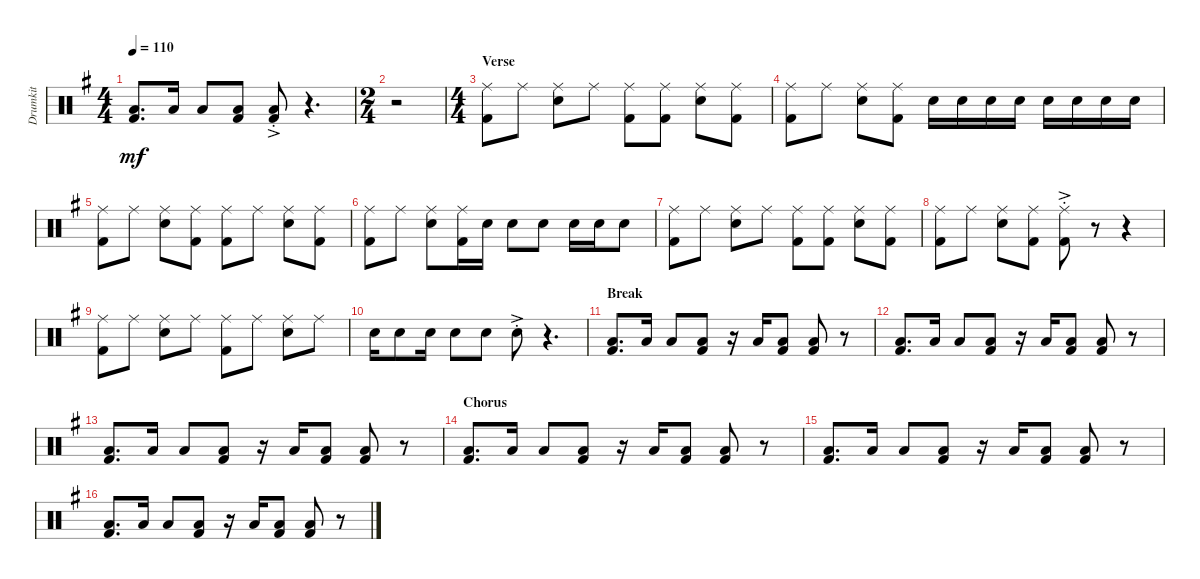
\track ("Drumkit" "Drumkit") {instrument percussion}
\staff {score}
\articulation defaults
\ts (4 4)
\tempo 110
\clef neutral
\ks g
("Kick (hit) 2" "Low Floor Tom (hit)").8{d dy mf} "Low Floor Tom (hit)".16 "Low Floor Tom (hit)".8 ("Low Floor Tom (hit)" "Kick (hit) 2").8 ("Low Floor Tom (hit)"{ac st} "Kick (hit) 2"{ac st}).8 r.4{d} |
\ts (2 4)
r.2 |
\ts (4 4)
\section ("" "Verse")
("Kick (hit) 2" "Ride (middle)").8 "Ride (middle)".8 ("Snare (hit) 2" "Ride (middle)").8 "Ride (middle)".8 ("Kick (hit) 2" "Ride (middle)").8 ("Kick (hit) 2" "Ride (middle)").8 ("Snare (hit) 2" "Ride (middle)").8 ("Ride (middle)" "Kick (hit) 2").8 |
("Kick (hit) 2" "Ride (middle)").8 "Ride (middle)".8 ("Snare (hit) 2" "Ride (middle)").8 ("Ride (middle)" "Kick (hit) 2").8 "Snare (hit) 2".16 "Snare (hit) 2".16 "Snare (hit) 2".16 "Snare (hit) 2".16 "Snare (hit) 2".16 "Snare (hit) 2".16 "Snare (hit) 2".16 "Snare (hit) 2".16 |
("Kick (hit) 2" "Ride (middle)").8 "Ride (middle)".8 ("Snare (hit) 2" "Ride (middle)").8 ("Ride (middle)" "Kick (hit) 2").8 ("Kick (hit) 2" "Ride (middle)").8 "Ride (middle)".8 ("Snare (hit) 2" "Ride (middle)").8 ("Kick (hit) 2" "Ride (middle)").8 |
("Kick (hit) 2" "Ride (middle)").8 "Ride (middle)".8 ("Snare (hit) 2" "Ride (middle)").8 ("Ride (middle)" "Kick (hit) 2").16 "Snare (hit) 2".16 "Snare (hit) 2".8 "Snare (hit) 2".8 "Snare (hit) 2".16 "Snare (hit) 2".16 "Snare (hit) 2".8 |
("Kick (hit) 2" "Ride (middle)").8 "Ride (middle)".8 ("Snare (hit) 2" "Ride (middle)").8 "Ride (middle)".8 ("Kick (hit) 2" "Ride (middle)").8 ("Kick (hit) 2" "Ride (middle)").8 ("Snare (hit) 2" "Ride (middle)").8 ("Ride (middle)" "Kick (hit) 2").8 |
("Kick (hit) 2" "Ride (middle)").8 "Ride (middle)".8 ("Snare (hit) 2" "Ride (middle)").8 ("Ride (middle)" "Kick (hit) 2").8 ("Kick (hit) 2"{ac st} "Ride (middle)").8 r.8 r.4 |
("Kick (hit) 2" "Ride (middle)").8 "Ride (middle)".8 ("Snare (hit) 2" "Ride (middle)").8 "Ride (middle)".8 ("Kick (hit) 2" "Ride (middle)").8 "Ride (middle)".8 ("Snare (hit) 2" "Ride (middle)").8 "Ride (middle)".8 |
"Snare (hit) 2".16 "Snare (hit) 2".8 "Snare (hit) 2".16 "Snare (hit) 2".8 "Snare (hit) 2".8 "Snare (hit) 2"{ac st}.8 r.4{d} |
\section ("" "Break")
("Kick (hit) 2" "Low Floor Tom (hit)").8{d} "Low Floor Tom (hit)".16 "Low Floor Tom (hit)".8 ("Low Floor Tom (hit)" "Kick (hit) 2").8 r.16 "Low Floor Tom (hit)".16 ("Kick (hit) 2" "Low Floor Tom (hit)").8 ("Low Floor Tom (hit)" "Kick (hit) 2").8 r.8 |
("Kick (hit) 2" "Low Floor Tom (hit)").8{d} "Low Floor Tom (hit)".16 "Low Floor Tom (hit)".8 ("Low Floor Tom (hit)" "Kick (hit) 2").8 r.16 "Low Floor Tom (hit)".16 ("Kick (hit) 2" "Low Floor Tom (hit)").8 ("Low Floor Tom (hit)" "Kick (hit) 2").8 r.8 |
("Kick (hit) 2" "Low Floor Tom (hit)").8{d} "Low Floor Tom (hit)".16 "Low Floor Tom (hit)".8 ("Low Floor Tom (hit)" "Kick (hit) 2").8 r.16 "Low Floor Tom (hit)".16 ("Kick (hit) 2" "Low Floor Tom (hit)").8 ("Low Floor Tom (hit)" "Kick (hit) 2").8 r.8 |
\section ("" "Chorus")
("Kick (hit) 2" "Low Floor Tom (hit)").8{d} "Low Floor Tom (hit)".16 "Low Floor Tom (hit)".8 ("Low Floor Tom (hit)" "Kick (hit) 2").8 r.16 "Low Floor Tom (hit)".16 ("Kick (hit) 2" "Low Floor Tom (hit)").8 ("Low Floor Tom (hit)" "Kick (hit) 2").8 r.8 |
("Kick (hit) 2" "Low Floor Tom (hit)").8{d} "Low Floor Tom (hit)".16 "Low Floor Tom (hit)".8 ("Low Floor Tom (hit)" "Kick (hit) 2").8 r.16 "Low Floor Tom (hit)".16 ("Kick (hit) 2" "Low Floor Tom (hit)").8 ("Low Floor Tom (hit)" "Kick (hit) 2").8 r.8 |
("Kick (hit) 2" "Low Floor Tom (hit)").8{d} "Low Floor Tom (hit)".16 "Low Floor Tom (hit)".8 ("Low Floor Tom (hit)" "Kick (hit) 2").8 r.16 "Low Floor Tom (hit)".16 ("Kick (hit) 2" "Low Floor Tom (hit)").8 ("Low Floor Tom (hit)" "Kick (hit) 2").8 r.8
